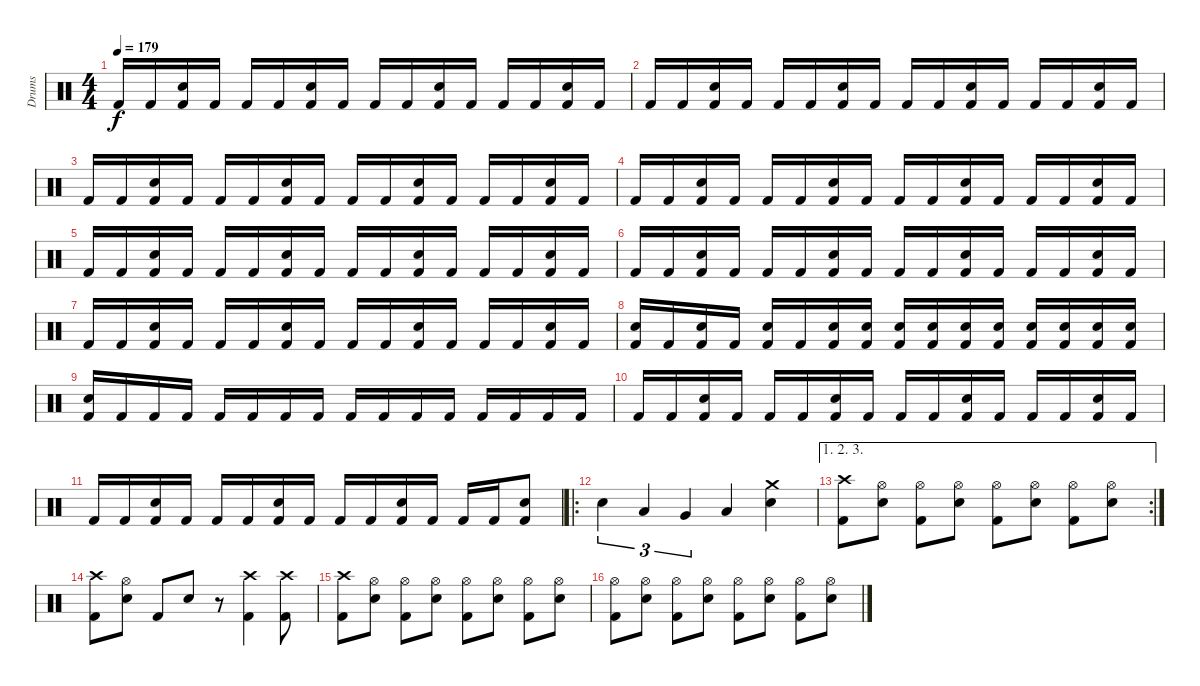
\track ("Drums" "Drums") {instrument percussion}
\staff {score}
\articulation defaults
\ts (4 4)
\tempo 179
\clef neutral
\ks c "Kick (hit) 2".16{dy f} "Kick (hit) 2".16
("Electric Snare (hit)" "Kick (hit) 2").16 "Kick (hit) 2".16 "Kick (hit) 2".16 "Kick (hit) 2".16 ("Electric Snare (hit)" "Kick (hit) 2").16 "Kick (hit) 2".16 "Kick (hit) 2".16 "Kick (hit) 2".16 ("Electric Snare (hit)" "Kick (hit) 2").16 "Kick (hit) 2".16 "Kick (hit) 2".16 "Kick (hit) 2".16 ("Electric Snare (hit)" "Kick (hit) 2").16 "Kick (hit) 2".16 |
"Kick (hit) 2".16 "Kick (hit) 2".16 ("Electric Snare (hit)" "Kick (hit) 2").16 "Kick (hit) 2".16 "Kick (hit) 2".16 "Kick (hit) 2".16 ("Electric Snare (hit)" "Kick (hit) 2").16 "Kick (hit) 2".16 "Kick (hit) 2".16 "Kick (hit) 2".16 ("Electric Snare (hit)" "Kick (hit) 2").16 "Kick (hit) 2".16 "Kick (hit) 2".16 "Kick (hit) 2".16 ("Electric Snare (hit)" "Kick (hit) 2").16 "Kick (hit) 2".16 |
"Kick (hit) 2".16 "Kick (hit) 2".16 ("Electric Snare (hit)" "Kick (hit) 2").16 "Kick (hit) 2".16 "Kick (hit) 2".16 "Kick (hit) 2".16 ("Electric Snare (hit)" "Kick (hit) 2").16 "Kick (hit) 2".16 "Kick (hit) 2".16 "Kick (hit) 2".16 ("Electric Snare (hit)" "Kick (hit) 2").16 "Kick (hit) 2".16 "Kick (hit) 2".16 "Kick (hit) 2".16 ("Electric Snare (hit)" "Kick (hit) 2").16 "Kick (hit) 2".16 |
"Kick (hit) 2".16 "Kick (hit) 2".16 ("Electric Snare (hit)" "Kick (hit) 2").16 "Kick (hit) 2".16 "Kick (hit) 2".16 "Kick (hit) 2".16 ("Electric Snare (hit)" "Kick (hit) 2").16 "Kick (hit) 2".16 "Kick (hit) 2".16 "Kick (hit) 2".16 ("Electric Snare (hit)" "Kick (hit) 2").16 "Kick (hit) 2".16 "Kick (hit) 2".16 "Kick (hit) 2".16 ("Electric Snare (hit)" "Kick (hit) 2").16 "Kick (hit) 2".16 |
"Kick (hit) 2".16 "Kick (hit) 2".16 ("Electric Snare (hit)" "Kick (hit) 2").16 "Kick (hit) 2".16 "Kick (hit) 2".16 "Kick (hit) 2".16 ("Electric Snare (hit)" "Kick (hit) 2").16 "Kick (hit) 2".16 "Kick (hit) 2".16 "Kick (hit) 2".16 ("Electric Snare (hit)" "Kick (hit) 2").16 "Kick (hit) 2".16 "Kick (hit) 2".16 "Kick (hit) 2".16 ("Electric Snare (hit)" "Kick (hit) 2").16 "Kick (hit) 2".16 |
"Kick (hit) 2".16 "Kick (hit) 2".16 ("Electric Snare (hit)" "Kick (hit) 2").16 "Kick (hit) 2".16 "Kick (hit) 2".16 "Kick (hit) 2".16 ("Electric Snare (hit)" "Kick (hit) 2").16 "Kick (hit) 2".16 "Kick (hit) 2".16 "Kick (hit) 2".16 ("Electric Snare (hit)" "Kick (hit) 2").16 "Kick (hit) 2".16 "Kick (hit) 2".16 "Kick (hit) 2".16 ("Electric Snare (hit)" "Kick (hit) 2").16 "Kick (hit) 2".16 |
"Kick (hit) 2".16 "Kick (hit) 2".16 ("Electric Snare (hit)" "Kick (hit) 2").16 "Kick (hit) 2".16 "Kick (hit) 2".16 "Kick (hit) 2".16 ("Electric Snare (hit)" "Kick (hit) 2").16 "Kick (hit) 2".16 "Kick (hit) 2".16 "Kick (hit) 2".16 ("Electric Snare (hit)" "Kick (hit) 2").16 "Kick (hit) 2".16 "Kick (hit) 2".16 "Kick (hit) 2".16 ("Electric Snare (hit)" "Kick (hit) 2").16 "Kick (hit) 2".16 |
("Electric Snare (hit)" "Kick (hit) 2").16 "Kick (hit) 2".16 ("Electric Snare (hit)" "Kick (hit) 2").16 "Kick (hit) 2".16 ("Electric Snare (hit)" "Kick (hit) 2").16 "Kick (hit) 2".16 ("Electric Snare (hit)" "Kick (hit) 2").16 ("Electric Snare (hit)" "Kick (hit) 2").16 ("Electric Snare (hit)" "Kick (hit) 2").16 ("Electric Snare (hit)" "Kick (hit) 2").16 ("Electric Snare (hit)" "Kick (hit) 2").16 ("Electric Snare (hit)" "Kick (hit) 2").16 ("Electric Snare (hit)" "Kick (hit) 2").16 ("Electric Snare (hit)" "Kick (hit) 2").16 ("Electric Snare (hit)" "Kick (hit) 2").16 ("Electric Snare (hit)" "Kick (hit) 2").16 |
("Electric Snare (hit)" "Kick (hit) 2").16 "Kick (hit) 2".16 "Kick (hit) 2".16 "Kick (hit) 2".16 "Kick (hit) 2".16 "Kick (hit) 2".16 "Kick (hit) 2".16 "Kick (hit) 2".16 "Kick (hit) 2".16 "Kick (hit) 2".16 "Kick (hit) 2".16 "Kick (hit) 2".16 "Kick (hit) 2".16 "Kick (hit) 2".16 "Kick (hit) 2".16 "Kick (hit) 2".16 |
"Kick (hit) 2".16 "Kick (hit) 2".16 ("Electric Snare (hit)" "Kick (hit) 2").16 "Kick (hit) 2".16 "Kick (hit) 2".16 "Kick (hit) 2".16 ("Electric Snare (hit)" "Kick (hit) 2").16 "Kick (hit) 2".16 "Kick (hit) 2".16 "Kick (hit) 2".16 ("Electric Snare (hit)" "Kick (hit) 2").16 "Kick (hit) 2".16 "Kick (hit) 2".16 "Kick (hit) 2".16 ("Electric Snare (hit)" "Kick (hit) 2").16 "Kick (hit) 2".16 |
"Kick (hit) 2".16 "Kick (hit) 2".16 ("Electric Snare (hit)" "Kick (hit) 2").16 "Kick (hit) 2".16 "Kick (hit) 2".16 "Kick (hit) 2".16 ("Electric Snare (hit)" "Kick (hit) 2").16 "Kick (hit) 2".16 "Kick (hit) 2".16 "Kick (hit) 2".16 ("Electric Snare (hit)" "Kick (hit) 2").16 "Kick (hit) 2".16 "Kick (hit) 2".16 "Kick (hit) 2".16 ("Electric Snare (hit)" "Kick (hit) 2").8 |
\ro "Electric Snare (hit)".4{tu (3 2)} "Low Tom (hit)".4{tu (3 2)} "Very Low Tom (hit)".4{tu (3 2)} "Low Floor Tom (hit)".4
("Crash medium (hit)" "Electric Snare (hit)").4 |
\ae (1 2 3)
\rc 2
("Crash high (hit)" "Kick (hit) 2").8 ("Hi-Hat (open)" "Electric Snare (hit)").8 ("Hi-Hat (open)" "Kick (hit) 2").8 ("Hi-Hat (open)" "Electric Snare (hit)").8 ("Hi-Hat (open)" "Kick (hit) 2").8 ("Hi-Hat (open)" "Electric Snare (hit)").8 ("Hi-Hat (open)" "Kick (hit) 2").8 ("Hi-Hat (open)" "Electric Snare (hit)").8 |
("Crash high (hit)" "Kick (hit) 2").8 ("Hi-Hat (open)" "Electric Snare (hit)").8 "Kick (hit) 2".8 "Electric Snare (hit)".8 r.8 ("Crash high (hit)" "Kick (hit) 2").4 ("Crash high (hit)" "Kick (hit) 2").8 |
("Crash high (hit)" "Kick (hit) 2").8 ("Hi-Hat (open)" "Electric Snare (hit)").8 ("Hi-Hat (open)" "Kick (hit) 2").8 ("Hi-Hat (open)" "Electric Snare (hit)").8 ("Hi-Hat (open)" "Kick (hit) 2").8 ("Hi-Hat (open)" "Electric Snare (hit)").8 ("Hi-Hat (open)" "Kick (hit) 2").8 ("Hi-Hat (open)" "Electric Snare (hit)").8 |
("Hi-Hat (open)" "Kick (hit) 2").8 ("Hi-Hat (open)" "Electric Snare (hit)").8 ("Hi-Hat (open)" "Kick (hit) 2").8 ("Hi-Hat (open)" "Electric Snare (hit)").8 ("Hi-Hat (open)" "Kick (hit) 2").8 ("Hi-Hat (open)" "Electric Snare (hit)").8 ("Hi-Hat (open)" "Kick (hit) 2").8 ("Hi-Hat (open)" "Electric Snare (hit)").8
